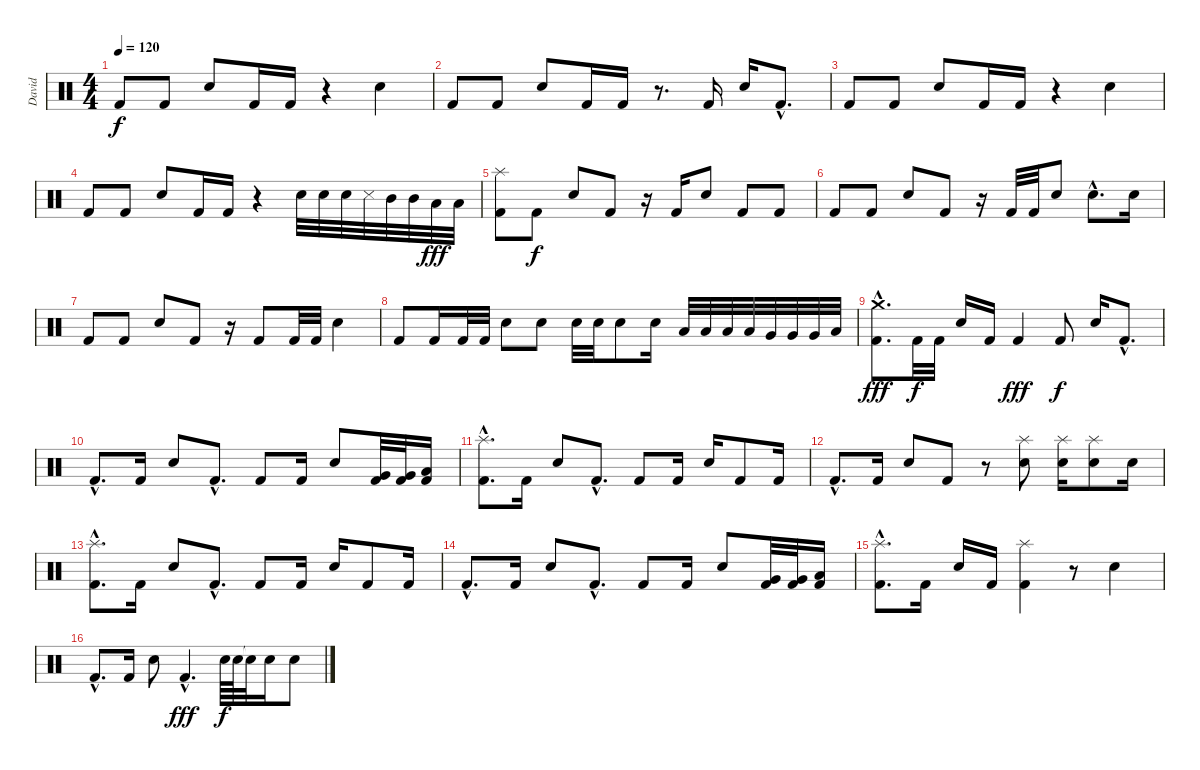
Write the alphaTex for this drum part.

\track ("David " "David ") {instrument percussion}
\staff {score}
\articulation defaults
\ts (4 4)
\tempo 120
\clef neutral
\ks c "Kick (hit) 2".8{dy f} "Kick (hit) 2".8 "Snare (hit) 2".8 "Kick (hit) 2".16 "Kick (hit) 2".16
r.4 "Snare (hit) 2".4 |
"Kick (hit) 2".8 "Kick (hit) 2".8 "Snare (hit) 2".8 "Kick (hit) 2".16 "Kick (hit) 2".16 r.8{d} "Kick (hit) 2".16 "Snare (hit) 2".16 "Kick (hit) 2"{hac}.8{d} |
"Kick (hit) 2".8 "Kick (hit) 2".8 "Snare (hit) 2".8 "Kick (hit) 2".16 "Kick (hit) 2".16 r.4 "Snare (hit) 2".4 |
"Kick (hit) 2".8 "Kick (hit) 2".8 "Snare (hit) 2".8 "Kick (hit) 2".16 "Kick (hit) 2".16 r.4 "Snare (hit) 2".32 "Snare (hit) 2".32 "Snare (hit) 2".32 "Metronome (hit)".32 "Mid Tom (hit)".32 "Mid Tom (hit)".32 "Low Tom (hit)".32{dy fff} "Low Tom (hit)".32 |
("Splash (hit)" "Kick (hit) 2").8 "Kick (hit) 2".8{dy f} "Snare (hit) 2".8 "Kick (hit) 2".8 r.16 "Kick (hit) 2".16 "Snare (hit) 2".8 "Kick (hit) 2".8 "Kick (hit) 2".8 |
"Kick (hit) 2".8 "Kick (hit) 2".8 "Snare (hit) 2".8 "Kick (hit) 2".8 r.16 "Kick (hit) 2".32 "Kick (hit) 2".32 "Snare (hit) 2".8 "Snare (hit) 2"{hac}.8{d} "Snare (hit) 2".16 |
"Kick (hit) 2".8 "Kick (hit) 2".8 "Snare (hit) 2".8 "Kick (hit) 2".8 r.16 "Kick (hit) 2".8 "Kick (hit) 2".32 "Kick (hit) 2".32 "Snare (hit) 2".4 |
"Kick (hit) 2".8 "Kick (hit) 2".16 "Kick (hit) 2".32 "Kick (hit) 2".32 "Snare (hit) 2".8 "Snare (hit) 2".8 "Snare (hit) 2".32 "Snare (hit) 2".32 "Snare (hit) 2".8 "Snare (hit) 2".16 "Low Tom (hit)".32 "Low Tom (hit)".32 "Low Tom (hit)".32 "Low Tom (hit)".32 "Very Low Tom (hit)".32 "Very Low Tom (hit)".32 "Very Low Tom (hit)".32 "Low Floor Tom (hit)".32 |
("Crash medium (hit)"{hac} "Kick (hit) 2"{hac}).8{d dy fff} "Kick (hit) 2".32{dy f} "Kick (hit) 2".32 "Snare (hit) 2".16 "Kick (hit) 2".16 "Kick (hit) 2".4{dy fff} "Kick (hit) 2".8{dy f} "Snare (hit) 2".16 "Kick (hit) 2"{hac}.8{d} |
"Kick (hit) 2"{hac}.8{d} "Kick (hit) 2".16 "Snare (hit) 2".8 "Kick (hit) 2"{hac}.8{d} "Kick (hit) 2".8 "Kick (hit) 2".16 "Snare (hit) 2".8 ("Very Low Tom (hit)" "Kick (hit) 2").32 ("Very Low Tom (hit)" "Kick (hit) 2").32 ("Low Floor Tom (hit)" "Kick (hit) 2").16 |
("Splash (hit)"{hac} "Kick (hit) 2"{hac}).8{d} "Kick (hit) 2".16 "Snare (hit) 2".8 "Kick (hit) 2"{hac}.8{d} "Kick (hit) 2".8 "Kick (hit) 2".16 "Snare (hit) 2".16 "Kick (hit) 2".8 "Kick (hit) 2".16 |
"Kick (hit) 2"{hac}.8{d} "Kick (hit) 2".16 "Snare (hit) 2".8 "Kick (hit) 2".8 r.8 ("Splash (hit)" "Snare (hit) 2").8 ("Splash (hit)" "Snare (hit) 2").16 ("Splash (hit)" "Snare (hit) 2").8 "Snare (hit) 2".16 |
("Splash (hit)"{hac} "Kick (hit) 2"{hac}).8{d} "Kick (hit) 2".16 "Snare (hit) 2".8 "Kick (hit) 2"{hac}.8{d} "Kick (hit) 2".8 "Kick (hit) 2".16 "Snare (hit) 2".16 "Kick (hit) 2".8 "Kick (hit) 2".16 |
"Kick (hit) 2"{hac}.8{d} "Kick (hit) 2".16 "Snare (hit) 2".8 "Kick (hit) 2"{hac}.8{d} "Kick (hit) 2".8 "Kick (hit) 2".16 "Snare (hit) 2".8 ("Very Low Tom (hit)" "Kick (hit) 2").32 ("Very Low Tom (hit)" "Kick (hit) 2").32 ("Low Floor Tom (hit)" "Kick (hit) 2").16 |
("Splash (hit)"{hac} "Kick (hit) 2"{hac}).8{d} "Kick (hit) 2".16 "Snare (hit) 2".16 "Kick (hit) 2".16 ("Splash (hit)" "Kick (hit) 2").4 r.8 "Snare (hit) 2".4 |
"Kick (hit) 2"{hac}.8{d} "Kick (hit) 2".16 "Snare (hit) 2".8 "Kick (hit) 2"{hac}.4{d dy fff} "Snare (hit) 2".64{dy f} "Snare (hit) 2".64 "Snare (hit)"{t}.32 "Snare (hit) 2".16 "Snare (hit) 2".8
